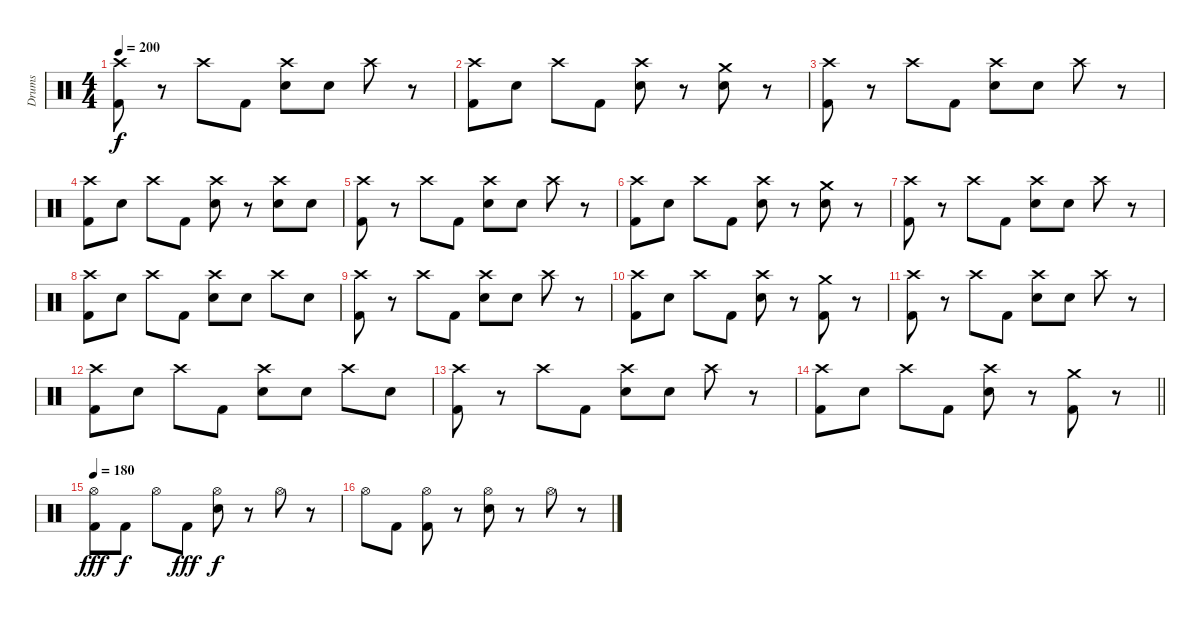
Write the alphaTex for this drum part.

\track ("Drums" "Drums") {instrument percussion}
\staff {score}
\articulation defaults
\ts (4 4)
\tempo 200
\clef neutral
\ks c
("Crash high (hit)" "Kick (hit) 2").8{dy f} r.8 "Crash high (hit)".8 "Kick (hit) 2".8 ("Crash high (hit)" "Electric Snare (hit)").8 "Electric Snare (hit)".8 "Crash high (hit)".8 r.8 |
("Crash high (hit)" "Kick (hit) 2").8 "Electric Snare (hit)".8 "Crash high (hit)".8 "Kick (hit) 2".8 ("Crash high (hit)" "Electric Snare (hit)").8 r.8 ("Crash medium (hit)" "Electric Snare (hit)").8 r.8 |
("Crash high (hit)" "Kick (hit) 2").8 r.8 "Crash high (hit)".8 "Kick (hit) 2".8 ("Crash high (hit)" "Electric Snare (hit)").8 "Electric Snare (hit)".8 "Crash high (hit)".8 r.8 |
("Crash high (hit)" "Kick (hit) 2").8 "Electric Snare (hit)".8 "Crash high (hit)".8 "Kick (hit) 2".8 ("Crash high (hit)" "Electric Snare (hit)").8 r.8 ("Crash high (hit)" "Electric Snare (hit)").8 "Electric Snare (hit)".8 |
("Crash high (hit)" "Kick (hit) 2").8 r.8 "Crash high (hit)".8 "Kick (hit) 2".8 ("Crash high (hit)" "Electric Snare (hit)").8 "Electric Snare (hit)".8 "Crash high (hit)".8 r.8 |
("Crash high (hit)" "Kick (hit) 2").8 "Electric Snare (hit)".8 "Crash high (hit)".8 "Kick (hit) 2".8 ("Crash high (hit)" "Electric Snare (hit)").8 r.8 ("Crash medium (hit)" "Electric Snare (hit)").8 r.8 |
("Crash high (hit)" "Kick (hit) 2").8 r.8 "Crash high (hit)".8 "Kick (hit) 2".8 ("Crash high (hit)" "Electric Snare (hit)").8 "Electric Snare (hit)".8 "Crash high (hit)".8 r.8 |
("Crash high (hit)" "Kick (hit) 2").8 "Electric Snare (hit)".8 "Crash high (hit)".8 "Kick (hit) 2".8 ("Crash high (hit)" "Electric Snare (hit)").8 "Electric Snare (hit)".8 "Crash high (hit)".8 "Electric Snare (hit)".8 |
("Crash high (hit)" "Kick (hit) 2").8 r.8 "Crash high (hit)".8 "Kick (hit) 2".8 ("Crash high (hit)" "Electric Snare (hit)").8 "Electric Snare (hit)".8 "Crash high (hit)".8 r.8 |
("Crash high (hit)" "Kick (hit) 2").8 "Electric Snare (hit)".8 "Crash high (hit)".8 "Kick (hit) 2".8 ("Crash high (hit)" "Electric Snare (hit)").8 r.8 ("Crash medium (hit)" "Kick (hit) 2").8 r.8 |
("Crash high (hit)" "Kick (hit) 2").8 r.8 "Crash high (hit)".8 "Kick (hit) 2".8 ("Crash high (hit)" "Electric Snare (hit)").8 "Electric Snare (hit)".8 "Crash high (hit)".8 r.8 |
("Crash high (hit)" "Kick (hit) 2").8 "Electric Snare (hit)".8 "Crash high (hit)".8 "Kick (hit) 2".8 ("Crash high (hit)" "Electric Snare (hit)").8 "Electric Snare (hit)".8 "Crash high (hit)".8 "Electric Snare (hit)".8 |
("Crash high (hit)" "Kick (hit) 2").8 r.8 "Crash high (hit)".8 "Kick (hit) 2".8 ("Crash high (hit)" "Electric Snare (hit)").8 "Electric Snare (hit)".8 "Crash high (hit)".8 r.8 |
\barLineRight lightlight
("Crash high (hit)" "Kick (hit) 2").8 "Electric Snare (hit)".8 "Crash high (hit)".8 "Kick (hit) 2".8 ("Crash high (hit)" "Electric Snare (hit)").8 r.8 ("Crash medium (hit)" "Kick (hit) 2").8 r.8 |
\section ("" "")
\tempo 180
("Hi-Hat (open)" "Kick (hit) 2").8{dy fff} "Kick (hit) 2".8{dy f} "Hi-Hat (open)".8 "Kick (hit) 2".8{dy fff} ("Hi-Hat (open)" "Electric Snare (hit)").8{dy f} r.8 "Hi-Hat (open)".8 r.8 |
"Hi-Hat (open)".8 "Kick (hit) 2".8 ("Hi-Hat (open)" "Kick (hit) 2").8 r.8 ("Hi-Hat (open)" "Electric Snare (hit)").8 r.8 "Hi-Hat (open)".8 r.8
